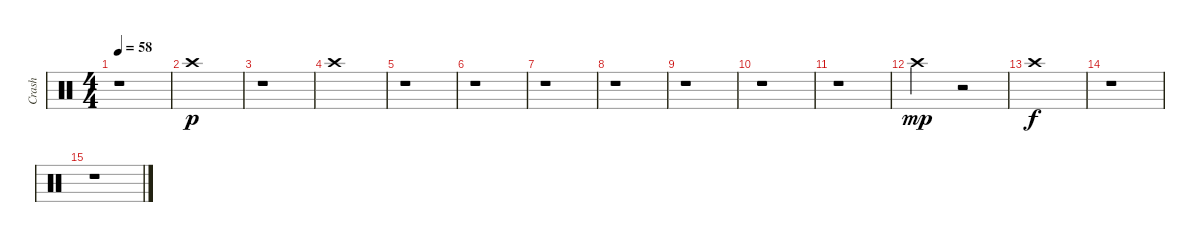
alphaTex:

\track ("Crash" "Crash") {instrument percussion}
\staff {score}
\articulation defaults
\ts (4 4)
\tempo 58
\clef neutral
\ks c
r.1{dy mp} |
"Crash high (hit)".1{dy p} |
r.1 |
"Crash high (hit)".1 |
r.1 |
r.1 |
r.1 |
r.1 |
r.1 |
r.1 |
r.1 |
"Crash high (hit)".2{dy mp} r.2 |
"Crash high (hit)".1{dy f} |
r.1 |
r.1
